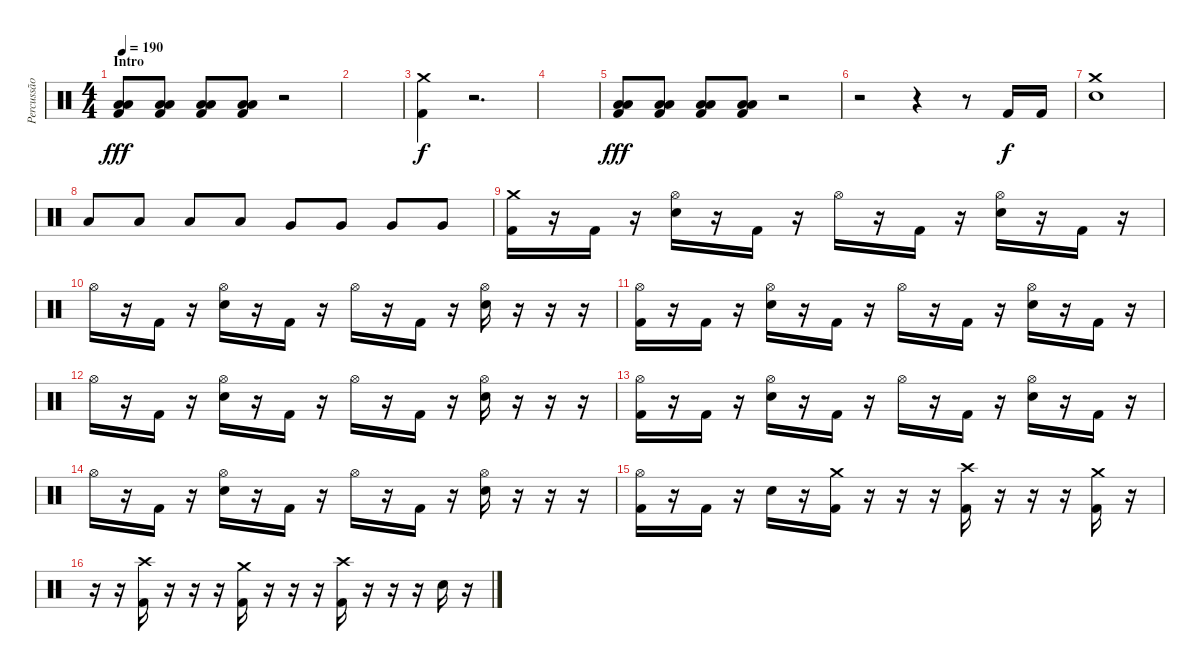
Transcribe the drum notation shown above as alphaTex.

\track ("Percussão" "Percussão") {instrument percussion}
\staff {score}
\articulation defaults
\ts (4 4)
\section ("" "Intro")
\tempo 190
\clef neutral
\ks c
("Low Tom (hit)" "Low Tom (hit)" "Kick (hit) 2").8{dy fff} ("Low Tom (hit)" "Low Tom (hit)" "Kick (hit) 2").8 ("Low Tom (hit)" "Low Tom (hit)" "Kick (hit) 2").8 ("Low Tom (hit)" "Low Tom (hit)" "Kick (hit) 2").8 r.2 |
|
("Crash medium (hit)" "Kick (hit) 2").4{dy f} r.2{d} |
|
("Low Tom (hit)" "Low Tom (hit)" "Kick (hit) 2").8{dy fff} ("Low Tom (hit)" "Low Tom (hit)" "Kick (hit) 2").8 ("Low Tom (hit)" "Low Tom (hit)" "Kick (hit) 2").8 ("Low Tom (hit)" "Low Tom (hit)" "Kick (hit) 2").8 r.2 |
r.2 r.4 r.8 "Kick (hit) 2".16{dy f} "Kick (hit) 2".16 |
("Crash medium (hit)" "Electric Snare (hit)").1 |
"Low Tom (hit)".8 "Low Tom (hit)".8 "Low Tom (hit)".8 "Low Tom (hit)".8 "Very Low Tom (hit)".8 "Very Low Tom (hit)".8 "Very Low Tom (hit)".8 "Very Low Tom (hit)".8 |
("Crash medium (hit)" "Kick (hit) 2").16 r.16 "Kick (hit) 2".16 r.16 ("Hi-Hat (open)" "Electric Snare (hit)").16 r.16 "Kick (hit) 2".16 r.16 "Hi-Hat (open)".16 r.16 "Kick (hit) 2".16 r.16 ("Hi-Hat (open)" "Electric Snare (hit)").16 r.16 "Kick (hit) 2".16 r.16 |
"Hi-Hat (open)".16 r.16 "Kick (hit) 2".16 r.16 ("Hi-Hat (open)" "Electric Snare (hit)").16 r.16 "Kick (hit) 2".16 r.16 "Hi-Hat (open)".16 r.16 "Kick (hit) 2".16 r.16 ("Hi-Hat (open)" "Electric Snare (hit)").16 r.16 r.16 r.16 |
("Hi-Hat (open)" "Kick (hit) 2").16 r.16 "Kick (hit) 2".16 r.16 ("Hi-Hat (open)" "Electric Snare (hit)").16 r.16 "Kick (hit) 2".16 r.16 "Hi-Hat (open)".16 r.16 "Kick (hit) 2".16 r.16 ("Hi-Hat (open)" "Electric Snare (hit)").16 r.16 "Kick (hit) 2".16 r.16 |
"Hi-Hat (open)".16 r.16 "Kick (hit) 2".16 r.16 ("Hi-Hat (open)" "Electric Snare (hit)").16 r.16 "Kick (hit) 2".16 r.16 "Hi-Hat (open)".16 r.16 "Kick (hit) 2".16 r.16 ("Hi-Hat (open)" "Electric Snare (hit)").16 r.16 r.16 r.16 |
("Hi-Hat (open)" "Kick (hit) 2").16 r.16 "Kick (hit) 2".16 r.16 ("Hi-Hat (open)" "Electric Snare (hit)").16 r.16 "Kick (hit) 2".16 r.16 "Hi-Hat (open)".16 r.16 "Kick (hit) 2".16 r.16 ("Hi-Hat (open)" "Electric Snare (hit)").16 r.16 "Kick (hit) 2".16 r.16 |
"Hi-Hat (open)".16 r.16 "Kick (hit) 2".16 r.16 ("Hi-Hat (open)" "Electric Snare (hit)").16 r.16 "Kick (hit) 2".16 r.16 "Hi-Hat (open)".16 r.16 "Kick (hit) 2".16 r.16 ("Hi-Hat (open)" "Electric Snare (hit)").16 r.16 r.16 r.16 |
("Hi-Hat (open)" "Kick (hit) 2").16 r.16 "Kick (hit) 2".16 r.16 "Electric Snare (hit)".16 r.16 ("Crash medium (hit)" "Kick (hit) 2").16 r.16 r.16 r.16 ("Crash high (hit)" "Kick (hit) 2").16 r.16 r.16 r.16 ("Crash medium (hit)" "Kick (hit) 2").16 r.16 |
r.16 r.16 ("Crash high (hit)" "Kick (hit) 2").16 r.16 r.16 r.16 ("Crash medium (hit)" "Kick (hit) 2").16 r.16 r.16 r.16 ("Crash high (hit)" "Kick (hit) 2").16 r.16 r.16 r.16 "Electric Snare (hit)".16 r.16
